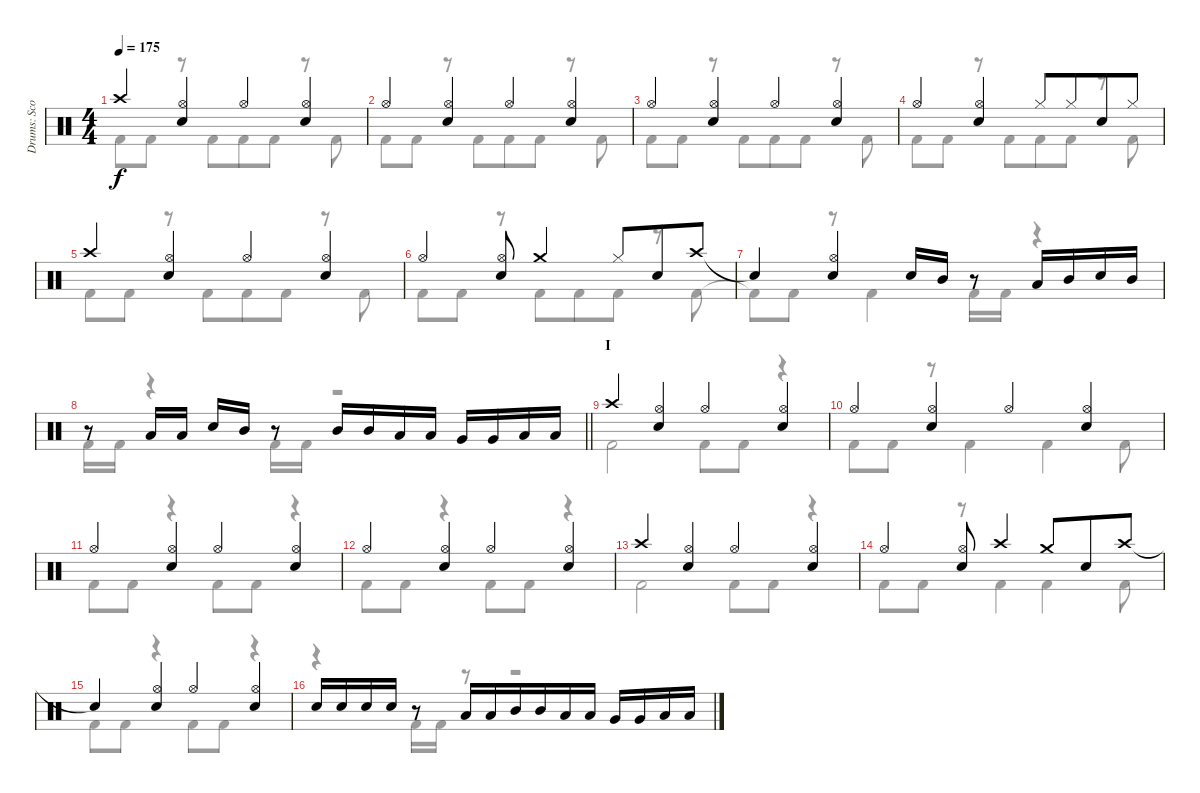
\track ("Drums: Scott" "Drums: Sco") {instrument percussion}
\staff {score}
\articulation defaults
\voice
\ts (4 4)
\tempo 175
\clef neutral
\ks c "Crash high (hit)".4{dy f}
("Hi-Hat (open)" "Snare (hit) 2").4 "Hi-Hat (open)".4 ("Hi-Hat (open)" "Snare (hit) 2").4 |
"Hi-Hat (open)".4 ("Hi-Hat (open)" "Snare (hit) 2").4 "Hi-Hat (open)".4 ("Hi-Hat (open)" "Snare (hit) 2").4 |
"Hi-Hat (open)".4 ("Hi-Hat (open)" "Snare (hit) 2").4 "Hi-Hat (open)".4 ("Hi-Hat (open)" "Snare (hit) 2").4 |
"Hi-Hat (open)".4 ("Hi-Hat (open)" "Snare (hit) 2").4 "Hi-Hat (closed)".8 "Hi-Hat (closed)".8{beam merge} "Snare (hit) 2".8 "Hi-Hat (closed)".8 |
"Crash high (hit)".4 ("Hi-Hat (open)" "Snare (hit) 2").4 "Hi-Hat (open)".4 ("Hi-Hat (open)" "Snare (hit) 2").4 |
"Hi-Hat (open)".4 ("Hi-Hat (open)" "Snare (hit) 2").8 "Crash medium (hit)".4 "Hi-Hat (closed)".8{beam merge} "Snare (hit) 2".8 "Crash high (hit)".8 |
"Snare (hit)"{t}.4 ("Hi-Hat (open)" "Snare (hit) 2").4 "Snare (hit) 2".16 "Mid Tom (hit)".16 r.8 "Low Tom (hit)".16 "Mid Tom (hit)".16 "Snare (hit) 2".16 "Mid Tom (hit)".16 |
\barLineRight lightlight
r.8 "Low Tom (hit)".16 "Low Tom (hit)".16 "Snare (hit) 2".16{beam merge} "Mid Tom (hit)".16 r.8 "Mid Tom (hit)".16 "Mid Tom (hit)".16 "Low Tom (hit)".16 "Low Tom (hit)".16 "Very Low Tom (hit)".16 "Very Low Tom (hit)".16 "Low Floor Tom (hit)".16 "Low Floor Tom (hit)".16 |
\section ("" "I")
"Crash high (hit)".4 ("Hi-Hat (open)" "Snare (hit) 2").4 "Hi-Hat (open)".4 ("Hi-Hat (open)" "Snare (hit) 2").4 |
"Hi-Hat (open)".4 ("Hi-Hat (open)" "Snare (hit) 2").4 "Hi-Hat (open)".4 ("Hi-Hat (open)" "Snare (hit) 2").4 |
"Hi-Hat (open)".4 ("Hi-Hat (open)" "Snare (hit) 2").4 "Hi-Hat (open)".4 ("Hi-Hat (open)" "Snare (hit) 2").4 |
"Hi-Hat (open)".4 ("Hi-Hat (open)" "Snare (hit) 2").4 "Hi-Hat (open)".4 ("Hi-Hat (open)" "Snare (hit) 2").4 |
"Crash high (hit)".4 ("Hi-Hat (open)" "Snare (hit) 2").4 "Hi-Hat (open)".4 ("Hi-Hat (open)" "Snare (hit) 2").4 |
"Hi-Hat (open)".4 ("Hi-Hat (open)" "Snare (hit) 2").8 "Crash high (hit)".4 "Crash medium (hit)".8{beam merge} "Snare (hit) 2".8 "Crash high (hit)".8 |
"Snare (hit)"{t}.4 ("Hi-Hat (open)" "Snare (hit) 2").4 "Hi-Hat (open)".4 ("Hi-Hat (open)" "Snare (hit) 2").4 |
"Snare (hit) 2".16 "Snare (hit) 2".16 "Snare (hit) 2".16 "Snare (hit) 2".16 r.8 "Low Tom (hit)".16 "Low Tom (hit)".16{beam merge} "Mid Tom (hit)".16 "Mid Tom (hit)".16 "Low Tom (hit)".16 "Low Tom (hit)".16 "Very Low Tom (hit)".16 "Very Low Tom (hit)".16 "Low Floor Tom (hit)".16 "Low Floor Tom (hit)".16
\voice
\clef neutral
\ottava regular
\simile none
\ks c "Kick (hit) 2".8{dy f} "Kick (hit) 2".8
r.8 "Kick (hit) 2".8{beam merge} "Kick (hit) 2".8 "Kick (hit) 2".8 r.8 "Kick (hit) 2".8 |
"Kick (hit) 2".8 "Kick (hit) 2".8 r.8 "Kick (hit) 2".8{beam merge} "Kick (hit) 2".8 "Kick (hit) 2".8 r.8 "Kick (hit) 2".8 |
"Kick (hit) 2".8 "Kick (hit) 2".8 r.8 "Kick (hit) 2".8{beam merge} "Kick (hit) 2".8 "Kick (hit) 2".8 r.8 "Kick (hit) 2".8 |
"Kick (hit) 2".8 "Kick (hit) 2".8 r.8 "Kick (hit) 2".8{beam merge} "Kick (hit) 2".8 "Kick (hit) 2".8 r.8 "Kick (hit) 2".8 |
"Kick (hit) 2".8 "Kick (hit) 2".8 r.8 "Kick (hit) 2".8{beam merge} "Kick (hit) 2".8 "Kick (hit) 2".8 r.8 "Kick (hit) 2".8 |
"Kick (hit) 2".8 "Kick (hit) 2".8 r.8 "Kick (hit) 2".8{beam merge} "Kick (hit) 2".8 "Kick (hit) 2".8 r.8 "Kick (hit) 2".8 |
"Kick (hit) 2"{t}.8 "Kick (hit) 2".8 r.8 "Kick (hit) 2".4{beam merge} "Kick (hit) 2".16 "Kick (hit) 2".16 r.4 |
\barLineRight lightlight "Kick (hit) 2".16 "Kick (hit) 2".16
r.4 "Kick (hit) 2".16{beam merge} "Kick (hit) 2".16 r.2 |
"Kick (hit) 2".2 "Kick (hit) 2".8 "Kick (hit) 2".8 r.4 |
"Kick (hit) 2".8 "Kick (hit) 2".8 r.8 "Kick (hit) 2".4 "Kick (hit) 2".4 "Kick (hit) 2".8 |
"Kick (hit) 2".8 "Kick (hit) 2".8 r.4 "Kick (hit) 2".8 "Kick (hit) 2".8 r.4 |
"Kick (hit) 2".8 "Kick (hit) 2".8 r.4 "Kick (hit) 2".8 "Kick (hit) 2".8 r.4 |
"Kick (hit) 2".2 "Kick (hit) 2".8 "Kick (hit) 2".8 r.4 |
"Kick (hit) 2".8 "Kick (hit) 2".8 r.8 "Kick (hit) 2".4 "Kick (hit) 2".4 "Kick (hit) 2".8 |
"Kick (hit) 2".8 "Kick (hit) 2".8 r.4 "Kick (hit) 2".8 "Kick (hit) 2".8 r.4 |
r.4 "Kick (hit) 2".16 "Kick (hit) 2".16 r.8 r.2
